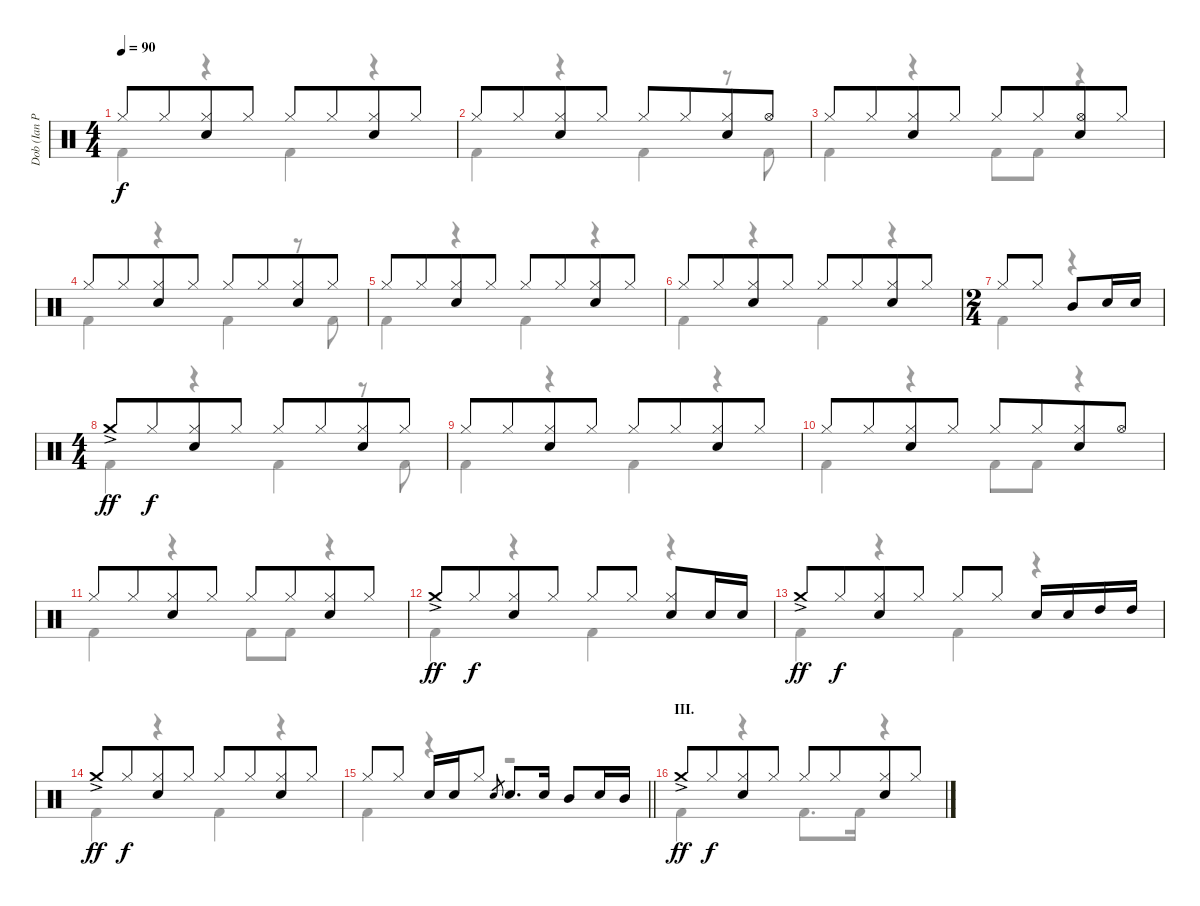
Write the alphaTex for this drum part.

\track ("Dob (Ian Paice)" "Dob (Ian P") {instrument percussion}
\staff {score}
\articulation defaults
\voice
\ts (4 4)
\tempo 90
\clef neutral
\ks c "Hi-Hat (closed)".8{dy f} "Hi-Hat (closed)".8{beam merge}
("Hi-Hat (closed)" "Electric Snare (hit)").8 "Hi-Hat (closed)".8 "Hi-Hat (closed)".8 "Hi-Hat (closed)".8{beam merge} ("Hi-Hat (closed)" "Electric Snare (hit)").8 "Hi-Hat (closed)".8 |
"Hi-Hat (closed)".8 "Hi-Hat (closed)".8{beam merge} ("Hi-Hat (closed)" "Electric Snare (hit)").8 "Hi-Hat (closed)".8 "Hi-Hat (closed)".8 "Hi-Hat (closed)".8{beam merge} ("Hi-Hat (closed)" "Electric Snare (hit)").8 "Hi-Hat (open)".8 |
"Hi-Hat (closed)".8 "Hi-Hat (closed)".8{beam merge} ("Hi-Hat (closed)" "Electric Snare (hit)").8 "Hi-Hat (closed)".8 "Hi-Hat (closed)".8 "Hi-Hat (closed)".8{beam merge} ("Hi-Hat (open)" "Electric Snare (hit)").8 "Hi-Hat (closed)".8 |
"Hi-Hat (closed)".8 "Hi-Hat (closed)".8{beam merge} ("Hi-Hat (closed)" "Electric Snare (hit)").8 "Hi-Hat (closed)".8 "Hi-Hat (closed)".8 "Hi-Hat (closed)".8{beam merge} ("Hi-Hat (closed)" "Electric Snare (hit)").8 "Hi-Hat (closed)".8 |
"Hi-Hat (closed)".8 "Hi-Hat (closed)".8{beam merge} ("Hi-Hat (closed)" "Electric Snare (hit)").8 "Hi-Hat (closed)".8 "Hi-Hat (closed)".8 "Hi-Hat (closed)".8{beam merge} ("Hi-Hat (closed)" "Electric Snare (hit)").8 "Hi-Hat (closed)".8 |
"Hi-Hat (closed)".8 "Hi-Hat (closed)".8{beam merge} ("Hi-Hat (closed)" "Electric Snare (hit)").8 "Hi-Hat (closed)".8 "Hi-Hat (closed)".8 "Hi-Hat (closed)".8{beam merge} ("Hi-Hat (closed)" "Electric Snare (hit)").8 "Hi-Hat (closed)".8 |
\ts (2 4)
"Hi-Hat (closed)".8 "Hi-Hat (closed)".8 "Mid Tom (hit)".8 "Electric Snare (hit)".16 "Electric Snare (hit)".16 |
\ts (4 4)
"Crash medium (hit)"{ac}.8{dy ff} "Hi-Hat (closed)".8{dy f beam merge} ("Hi-Hat (closed)" "Electric Snare (hit)").8 "Hi-Hat (closed)".8 "Hi-Hat (closed)".8 "Hi-Hat (closed)".8{beam merge} ("Hi-Hat (closed)" "Electric Snare (hit)").8 "Hi-Hat (closed)".8 |
"Hi-Hat (closed)".8 "Hi-Hat (closed)".8{beam merge} ("Hi-Hat (closed)" "Electric Snare (hit)").8 "Hi-Hat (closed)".8 "Hi-Hat (closed)".8 "Hi-Hat (closed)".8{beam merge} ("Hi-Hat (closed)" "Electric Snare (hit)").8 "Hi-Hat (closed)".8 |
"Hi-Hat (closed)".8 "Hi-Hat (closed)".8{beam merge} ("Hi-Hat (closed)" "Electric Snare (hit)").8 "Hi-Hat (closed)".8 "Hi-Hat (closed)".8 "Hi-Hat (closed)".8{beam merge} ("Hi-Hat (closed)" "Electric Snare (hit)").8 "Hi-Hat (open)".8 |
"Hi-Hat (closed)".8 "Hi-Hat (closed)".8{beam merge} ("Hi-Hat (closed)" "Electric Snare (hit)").8 "Hi-Hat (closed)".8 "Hi-Hat (closed)".8 "Hi-Hat (closed)".8{beam merge} ("Hi-Hat (closed)" "Electric Snare (hit)").8 "Hi-Hat (closed)".8 |
"Crash medium (hit)"{ac}.8{dy ff} "Hi-Hat (closed)".8{dy f beam merge} ("Hi-Hat (closed)" "Electric Snare (hit)").8 "Hi-Hat (closed)".8 "Hi-Hat (closed)".8 "Hi-Hat (closed)".8 ("Hi-Hat (closed)" "Electric Snare (hit)").8 "Electric Snare (hit)".16 "Electric Snare (hit)".16 |
"Crash medium (hit)"{ac}.8{dy ff} "Hi-Hat (closed)".8{dy f beam merge} ("Hi-Hat (closed)" "Electric Snare (hit)").8 "Hi-Hat (closed)".8 "Hi-Hat (closed)".8 "Hi-Hat (closed)".8 "Electric Snare (hit)".16 "Electric Snare (hit)".16 "High Tom (hit)".16 "High Tom (hit)".16 |
"Crash medium (hit)"{ac}.8{dy ff} "Hi-Hat (closed)".8{dy f beam merge} ("Hi-Hat (closed)" "Electric Snare (hit)").8 "Hi-Hat (closed)".8 "Hi-Hat (closed)".8 "Hi-Hat (closed)".8{beam merge} ("Hi-Hat (closed)" "Electric Snare (hit)").8 "Hi-Hat (closed)".8 |
\barLineRight lightlight "Hi-Hat (closed)".8 "Hi-Hat (closed)".8 "Electric Snare (hit)".16 "Electric Snare (hit)".16 "Hi-Hat (closed)".8 "Electric Snare (hit)".8{gr} "Electric Snare (hit)".8{d} "Electric Snare (hit)".16 "Mid Tom (hit)".8 "Electric Snare (hit)".16 "Mid Tom (hit)".16
|
\section ("" "III.")
"Crash medium (hit)"{ac}.8{dy ff} "Hi-Hat (closed)".8{dy f beam merge} ("Hi-Hat (closed)" "Electric Snare (hit)").8 "Hi-Hat (closed)".8 "Hi-Hat (closed)".8 "Hi-Hat (closed)".8{beam merge} ("Hi-Hat (closed)" "Electric Snare (hit)").8 "Hi-Hat (closed)".8
\voice
\clef neutral
\ottava regular
\simile none
\ks c "Kick (hit) 2".4{dy f}
r.4 "Kick (hit) 2".4 r.4 |
"Kick (hit) 2".4 r.4 "Kick (hit) 2".4 r.8 "Kick (hit) 2".8 |
"Kick (hit) 2".4 r.4 "Kick (hit) 2".8 "Kick (hit) 2".8 r.4 |
"Kick (hit) 2".4 r.4 "Kick (hit) 2".4 r.8 "Kick (hit) 2".8 |
"Kick (hit) 2".4 r.4 "Kick (hit) 2".4 r.4 |
"Kick (hit) 2".4 r.4 "Kick (hit) 2".4 r.4 |
"Kick (hit) 2".4 r.4 |
"Kick (hit) 2".4 r.4 "Kick (hit) 2".4 r.8 "Kick (hit) 2".8 |
"Kick (hit) 2".4 r.4 "Kick (hit) 2".4 r.4 |
"Kick (hit) 2".4 r.4 "Kick (hit) 2".8 "Kick (hit) 2".8 r.4 |
"Kick (hit) 2".4 r.4 "Kick (hit) 2".8 "Kick (hit) 2".8 r.4 |
"Kick (hit) 2".4 r.4 "Kick (hit) 2".4 r.4 |
"Kick (hit) 2".4 r.4 "Kick (hit) 2".4 r.4 |
"Kick (hit) 2".4 r.4 "Kick (hit) 2".4 r.4 |
\barLineRight lightlight "Kick (hit) 2".4
r.4 r.2 |
"Kick (hit) 2".4 r.4 "Kick (hit) 2".8{d} "Kick (hit) 2".16 r.4
